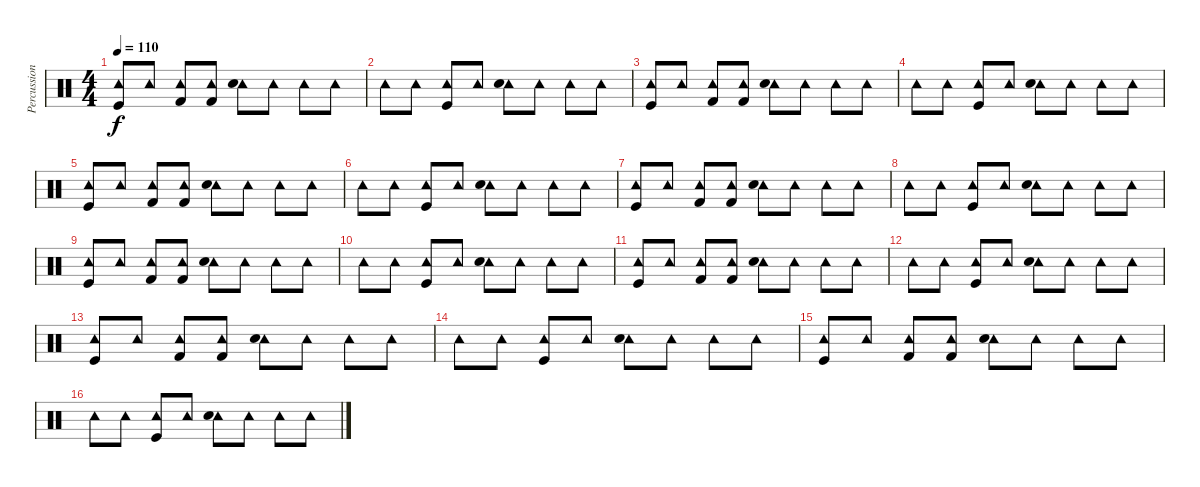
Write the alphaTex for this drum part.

\track ("Percussion" "Percussion") {instrument percussion}
\staff {score}
\articulation defaults
\ts (4 4)
\tempo 110
\clef neutral
\ks c
("Tambourine (hit)" "Kick (hit)").8{dy f} "Tambourine (hit)".8 ("Tambourine (hit)" "Kick (hit) 2").8 ("Tambourine (hit)" "Kick (hit) 2").8 ("Tambourine (hit)" "Snare (hit) 2").8 "Tambourine (hit)".8 "Tambourine (hit)".8 "Tambourine (hit)".8 |
"Tambourine (hit)".8 "Tambourine (hit)".8 ("Tambourine (hit)" "Kick (hit)").8 "Tambourine (hit)".8 ("Tambourine (hit)" "Snare (hit) 2").8 "Tambourine (hit)".8 "Tambourine (hit)".8 "Tambourine (hit)".8 |
("Tambourine (hit)" "Kick (hit)").8 "Tambourine (hit)".8 ("Tambourine (hit)" "Kick (hit) 2").8 ("Tambourine (hit)" "Kick (hit) 2").8 ("Tambourine (hit)" "Snare (hit) 2").8 "Tambourine (hit)".8 "Tambourine (hit)".8 "Tambourine (hit)".8 |
"Tambourine (hit)".8 "Tambourine (hit)".8 ("Tambourine (hit)" "Kick (hit)").8 "Tambourine (hit)".8 ("Tambourine (hit)" "Snare (hit) 2").8 "Tambourine (hit)".8 "Tambourine (hit)".8 "Tambourine (hit)".8 |
("Tambourine (hit)" "Kick (hit)").8 "Tambourine (hit)".8 ("Tambourine (hit)" "Kick (hit) 2").8 ("Tambourine (hit)" "Kick (hit) 2").8 ("Tambourine (hit)" "Snare (hit) 2").8 "Tambourine (hit)".8 "Tambourine (hit)".8 "Tambourine (hit)".8 |
"Tambourine (hit)".8 "Tambourine (hit)".8 ("Tambourine (hit)" "Kick (hit)").8 "Tambourine (hit)".8 ("Tambourine (hit)" "Snare (hit) 2").8 "Tambourine (hit)".8 "Tambourine (hit)".8 "Tambourine (hit)".8 |
("Tambourine (hit)" "Kick (hit)").8 "Tambourine (hit)".8 ("Tambourine (hit)" "Kick (hit) 2").8 ("Tambourine (hit)" "Kick (hit) 2").8 ("Tambourine (hit)" "Snare (hit) 2").8 "Tambourine (hit)".8 "Tambourine (hit)".8 "Tambourine (hit)".8 |
"Tambourine (hit)".8 "Tambourine (hit)".8 ("Tambourine (hit)" "Kick (hit)").8 "Tambourine (hit)".8 ("Tambourine (hit)" "Snare (hit) 2").8 "Tambourine (hit)".8 "Tambourine (hit)".8 "Tambourine (hit)".8 |
("Tambourine (hit)" "Kick (hit)").8 "Tambourine (hit)".8 ("Tambourine (hit)" "Kick (hit) 2").8 ("Tambourine (hit)" "Kick (hit) 2").8 ("Tambourine (hit)" "Snare (hit) 2").8 "Tambourine (hit)".8 "Tambourine (hit)".8 "Tambourine (hit)".8 |
"Tambourine (hit)".8 "Tambourine (hit)".8 ("Tambourine (hit)" "Kick (hit)").8 "Tambourine (hit)".8 ("Tambourine (hit)" "Snare (hit) 2").8 "Tambourine (hit)".8 "Tambourine (hit)".8 "Tambourine (hit)".8 |
("Tambourine (hit)" "Kick (hit)").8 "Tambourine (hit)".8 ("Tambourine (hit)" "Kick (hit) 2").8 ("Tambourine (hit)" "Kick (hit) 2").8 ("Tambourine (hit)" "Snare (hit) 2").8 "Tambourine (hit)".8 "Tambourine (hit)".8 "Tambourine (hit)".8 |
"Tambourine (hit)".8 "Tambourine (hit)".8 ("Tambourine (hit)" "Kick (hit)").8 "Tambourine (hit)".8 ("Tambourine (hit)" "Snare (hit) 2").8 "Tambourine (hit)".8 "Tambourine (hit)".8 "Tambourine (hit)".8 |
("Tambourine (hit)" "Kick (hit)").8 "Tambourine (hit)".8 ("Tambourine (hit)" "Kick (hit) 2").8 ("Tambourine (hit)" "Kick (hit) 2").8 ("Tambourine (hit)" "Snare (hit) 2").8 "Tambourine (hit)".8 "Tambourine (hit)".8 "Tambourine (hit)".8 |
"Tambourine (hit)".8 "Tambourine (hit)".8 ("Tambourine (hit)" "Kick (hit)").8 "Tambourine (hit)".8 ("Tambourine (hit)" "Snare (hit) 2").8 "Tambourine (hit)".8 "Tambourine (hit)".8 "Tambourine (hit)".8 |
("Tambourine (hit)" "Kick (hit)").8 "Tambourine (hit)".8 ("Tambourine (hit)" "Kick (hit) 2").8 ("Tambourine (hit)" "Kick (hit) 2").8 ("Tambourine (hit)" "Snare (hit) 2").8 "Tambourine (hit)".8 "Tambourine (hit)".8 "Tambourine (hit)".8 |
"Tambourine (hit)".8 "Tambourine (hit)".8 ("Tambourine (hit)" "Kick (hit)").8 "Tambourine (hit)".8 ("Tambourine (hit)" "Snare (hit) 2").8 "Tambourine (hit)".8 "Tambourine (hit)".8 "Tambourine (hit)".8
